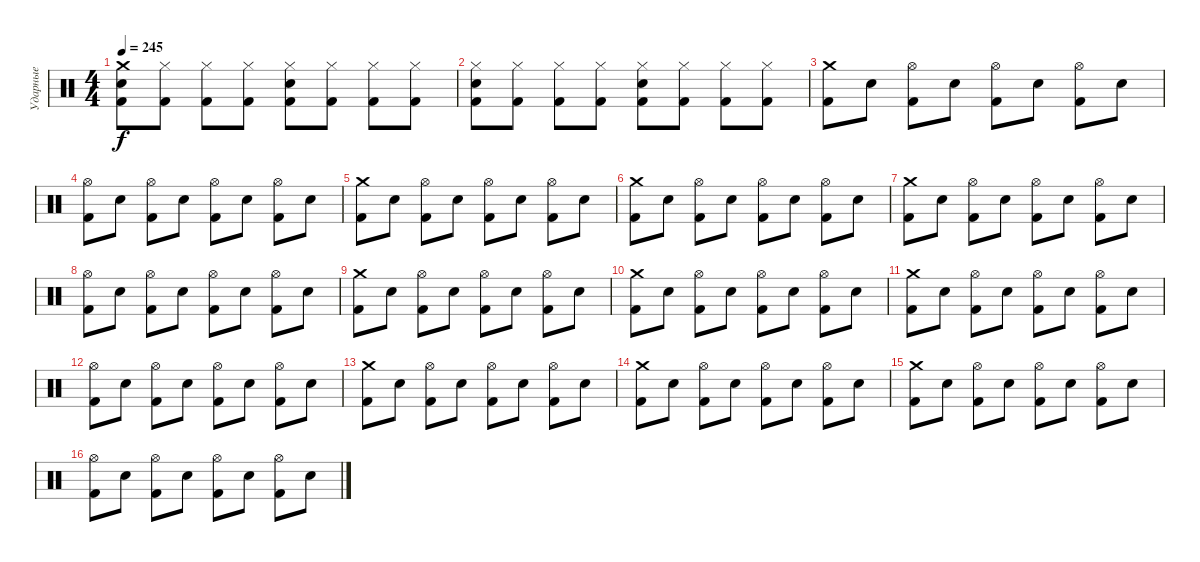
\track ("Ударные" "Ударные") {instrument percussion}
\staff {score}
\articulation defaults
\ts (4 4)
\tempo 245
\clef neutral
\ks c
("Crash medium (hit)" "Kick (hit) 2" "Snare (hit) 2").8{dy f} ("Hi-Hat (closed)" "Kick (hit) 2").8 ("Hi-Hat (closed)" "Kick (hit) 2").8 ("Hi-Hat (closed)" "Kick (hit) 2").8 ("Hi-Hat (closed)" "Kick (hit) 2" "Snare (hit) 2").8 ("Hi-Hat (closed)" "Kick (hit) 2").8 ("Hi-Hat (closed)" "Kick (hit) 2").8 ("Hi-Hat (closed)" "Kick (hit) 2").8 |
("Hi-Hat (closed)" "Kick (hit) 2" "Snare (hit) 2").8 ("Hi-Hat (closed)" "Kick (hit) 2").8 ("Hi-Hat (closed)" "Kick (hit) 2").8 ("Hi-Hat (closed)" "Kick (hit) 2").8 ("Hi-Hat (closed)" "Kick (hit) 2" "Snare (hit) 2").8 ("Hi-Hat (closed)" "Kick (hit) 2").8 ("Hi-Hat (closed)" "Kick (hit) 2").8 ("Hi-Hat (closed)" "Kick (hit) 2").8 |
("Crash medium (hit)" "Kick (hit) 2").8 "Snare (hit) 2".8 ("Hi-Hat (open)" "Kick (hit) 2").8 "Snare (hit) 2".8 ("Hi-Hat (open)" "Kick (hit) 2").8 "Snare (hit) 2".8 ("Hi-Hat (open)" "Kick (hit) 2").8 "Snare (hit) 2".8 |
("Hi-Hat (open)" "Kick (hit) 2").8 "Snare (hit) 2".8 ("Hi-Hat (open)" "Kick (hit) 2").8 "Snare (hit) 2".8 ("Hi-Hat (open)" "Kick (hit) 2").8 "Snare (hit) 2".8 ("Hi-Hat (open)" "Kick (hit) 2").8 "Snare (hit) 2".8 |
("Crash medium (hit)" "Kick (hit) 2").8 "Snare (hit) 2".8 ("Hi-Hat (open)" "Kick (hit) 2").8 "Snare (hit) 2".8 ("Hi-Hat (open)" "Kick (hit) 2").8 "Snare (hit) 2".8 ("Hi-Hat (open)" "Kick (hit) 2").8 "Snare (hit) 2".8 |
("Crash medium (hit)" "Kick (hit) 2").8 "Snare (hit) 2".8 ("Hi-Hat (open)" "Kick (hit) 2").8 "Snare (hit) 2".8 ("Hi-Hat (open)" "Kick (hit) 2").8 "Snare (hit) 2".8 ("Hi-Hat (open)" "Kick (hit) 2").8 "Snare (hit) 2".8 |
("Crash medium (hit)" "Kick (hit) 2").8 "Snare (hit) 2".8 ("Hi-Hat (open)" "Kick (hit) 2").8 "Snare (hit) 2".8 ("Hi-Hat (open)" "Kick (hit) 2").8 "Snare (hit) 2".8 ("Hi-Hat (open)" "Kick (hit) 2").8 "Snare (hit) 2".8 |
("Hi-Hat (open)" "Kick (hit) 2").8 "Snare (hit) 2".8 ("Hi-Hat (open)" "Kick (hit) 2").8 "Snare (hit) 2".8 ("Hi-Hat (open)" "Kick (hit) 2").8 "Snare (hit) 2".8 ("Hi-Hat (open)" "Kick (hit) 2").8 "Snare (hit) 2".8 |
("Crash medium (hit)" "Kick (hit) 2").8 "Snare (hit) 2".8 ("Hi-Hat (open)" "Kick (hit) 2").8 "Snare (hit) 2".8 ("Hi-Hat (open)" "Kick (hit) 2").8 "Snare (hit) 2".8 ("Hi-Hat (open)" "Kick (hit) 2").8 "Snare (hit) 2".8 |
("Crash medium (hit)" "Kick (hit) 2").8 "Snare (hit) 2".8 ("Hi-Hat (open)" "Kick (hit) 2").8 "Snare (hit) 2".8 ("Hi-Hat (open)" "Kick (hit) 2").8 "Snare (hit) 2".8 ("Hi-Hat (open)" "Kick (hit) 2").8 "Snare (hit) 2".8 |
("Crash medium (hit)" "Kick (hit) 2").8 "Snare (hit) 2".8 ("Hi-Hat (open)" "Kick (hit) 2").8 "Snare (hit) 2".8 ("Hi-Hat (open)" "Kick (hit) 2").8 "Snare (hit) 2".8 ("Hi-Hat (open)" "Kick (hit) 2").8 "Snare (hit) 2".8 |
("Hi-Hat (open)" "Kick (hit) 2").8 "Snare (hit) 2".8 ("Hi-Hat (open)" "Kick (hit) 2").8 "Snare (hit) 2".8 ("Hi-Hat (open)" "Kick (hit) 2").8 "Snare (hit) 2".8 ("Hi-Hat (open)" "Kick (hit) 2").8 "Snare (hit) 2".8 |
("Crash medium (hit)" "Kick (hit) 2").8 "Snare (hit) 2".8 ("Hi-Hat (open)" "Kick (hit) 2").8 "Snare (hit) 2".8 ("Hi-Hat (open)" "Kick (hit) 2").8 "Snare (hit) 2".8 ("Hi-Hat (open)" "Kick (hit) 2").8 "Snare (hit) 2".8 |
("Crash medium (hit)" "Kick (hit) 2").8 "Snare (hit) 2".8 ("Hi-Hat (open)" "Kick (hit) 2").8 "Snare (hit) 2".8 ("Hi-Hat (open)" "Kick (hit) 2").8 "Snare (hit) 2".8 ("Hi-Hat (open)" "Kick (hit) 2").8 "Snare (hit) 2".8 |
("Crash medium (hit)" "Kick (hit) 2").8 "Snare (hit) 2".8 ("Hi-Hat (open)" "Kick (hit) 2").8 "Snare (hit) 2".8 ("Hi-Hat (open)" "Kick (hit) 2").8 "Snare (hit) 2".8 ("Hi-Hat (open)" "Kick (hit) 2").8 "Snare (hit) 2".8 |
("Hi-Hat (open)" "Kick (hit) 2").8 "Snare (hit) 2".8 ("Hi-Hat (open)" "Kick (hit) 2").8 "Snare (hit) 2".8 ("Hi-Hat (open)" "Kick (hit) 2").8 "Snare (hit) 2".8 ("Hi-Hat (open)" "Kick (hit) 2").8 "Snare (hit) 2".8
